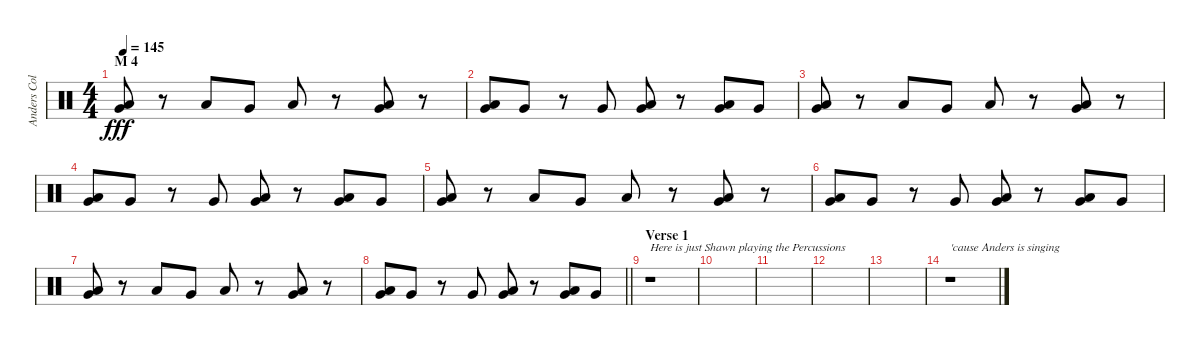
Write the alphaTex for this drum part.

\track ("Anders Colsefni" "Anders Col") {instrument percussion}
\staff {score}
\articulation defaults
\ts (4 4)
\section ("" "M 4")
\tempo 145
\clef neutral
\ks c
("Very Low Tom (hit)" "Low Floor Tom (hit)").8{dy fff} r.8 "Low Floor Tom (hit)".8 "Very Low Tom (hit)".8 "Low Floor Tom (hit)".8 r.8 ("Very Low Tom (hit)" "Low Floor Tom (hit)").8 r.8 |
("Very Low Tom (hit)" "Low Floor Tom (hit)").8 "Very Low Tom (hit)".8 r.8 "Very Low Tom (hit)".8 ("Very Low Tom (hit)" "Low Floor Tom (hit)").8 r.8 ("Very Low Tom (hit)" "Low Floor Tom (hit)").8 "Very Low Tom (hit)".8 |
("Very Low Tom (hit)" "Low Floor Tom (hit)").8 r.8 "Low Floor Tom (hit)".8 "Very Low Tom (hit)".8 "Low Floor Tom (hit)".8 r.8 ("Very Low Tom (hit)" "Low Floor Tom (hit)").8 r.8 |
("Very Low Tom (hit)" "Low Floor Tom (hit)").8 "Very Low Tom (hit)".8 r.8 "Very Low Tom (hit)".8 ("Very Low Tom (hit)" "Low Floor Tom (hit)").8 r.8 ("Very Low Tom (hit)" "Low Floor Tom (hit)").8 "Very Low Tom (hit)".8 |
("Very Low Tom (hit)" "Low Floor Tom (hit)").8 r.8 "Low Floor Tom (hit)".8 "Very Low Tom (hit)".8 "Low Floor Tom (hit)".8 r.8 ("Very Low Tom (hit)" "Low Floor Tom (hit)").8 r.8 |
("Very Low Tom (hit)" "Low Floor Tom (hit)").8 "Very Low Tom (hit)".8 r.8 "Very Low Tom (hit)".8 ("Very Low Tom (hit)" "Low Floor Tom (hit)").8 r.8 ("Very Low Tom (hit)" "Low Floor Tom (hit)").8 "Very Low Tom (hit)".8 |
("Very Low Tom (hit)" "Low Floor Tom (hit)").8 r.8 "Low Floor Tom (hit)".8 "Very Low Tom (hit)".8 "Low Floor Tom (hit)".8 r.8 ("Very Low Tom (hit)" "Low Floor Tom (hit)").8 r.8 |
\barLineRight lightlight
("Very Low Tom (hit)" "Low Floor Tom (hit)").8 "Very Low Tom (hit)".8 r.8 "Very Low Tom (hit)".8 ("Very Low Tom (hit)" "Low Floor Tom (hit)").8 r.8 ("Very Low Tom (hit)" "Low Floor Tom (hit)").8 "Very Low Tom (hit)".8 |
\section ("" "Verse 1")
r.1{txt "Here is just Shawn playing the Percussions"} |
|
|
|
|
r.1{txt "'cause Anders is singing"}
